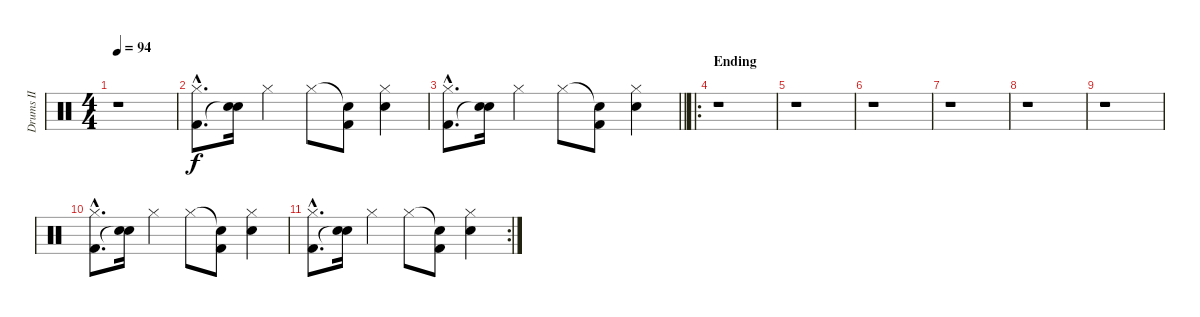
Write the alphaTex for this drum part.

\track ("Drums II" "Drums II") {instrument percussion}
\staff {score}
\articulation defaults
\ts (4 4)
\tempo 94
\clef neutral
\ks aminor
r.1{dy f} |
("Hi-Hat (closed)"{hac} "Kick (hit) 2"{hac}).8{d} ("Electric Snare (hit)" "Snare (hit)"{t}).16 "Hi-Hat (closed)".4 "Hi-Hat (closed)".8 ("Snare (hit)"{t} "Kick (hit) 2").8 ("Hi-Hat (closed)" "Electric Snare (hit)").4 |
\barLineRight lightlight
("Hi-Hat (closed)"{hac} "Kick (hit) 2"{hac}).8{d} ("Electric Snare (hit)" "Snare (hit)"{t}).16 "Hi-Hat (closed)".4 "Hi-Hat (closed)".8 ("Snare (hit)"{t} "Kick (hit) 2").8 ("Hi-Hat (closed)" "Electric Snare (hit)").4 |
\ro
\section ("" "Ending")
r.1 |
r.1 |
r.1 |
r.1 |
r.1 |
r.1 |
("Hi-Hat (closed)"{hac} "Kick (hit) 2"{hac}).8{d} ("Electric Snare (hit)" "Snare (hit)"{t}).16 "Hi-Hat (closed)".4 "Hi-Hat (closed)".8 ("Snare (hit)"{t} "Kick (hit) 2").8 ("Hi-Hat (closed)" "Electric Snare (hit)").4 |
\rc 2
("Hi-Hat (closed)"{hac} "Kick (hit) 2"{hac}).8{d} ("Electric Snare (hit)" "Snare (hit)"{t}).16 "Hi-Hat (closed)".4 "Hi-Hat (closed)".8 ("Snare (hit)"{t} "Kick (hit) 2").8 ("Hi-Hat (closed)" "Electric Snare (hit)").4
